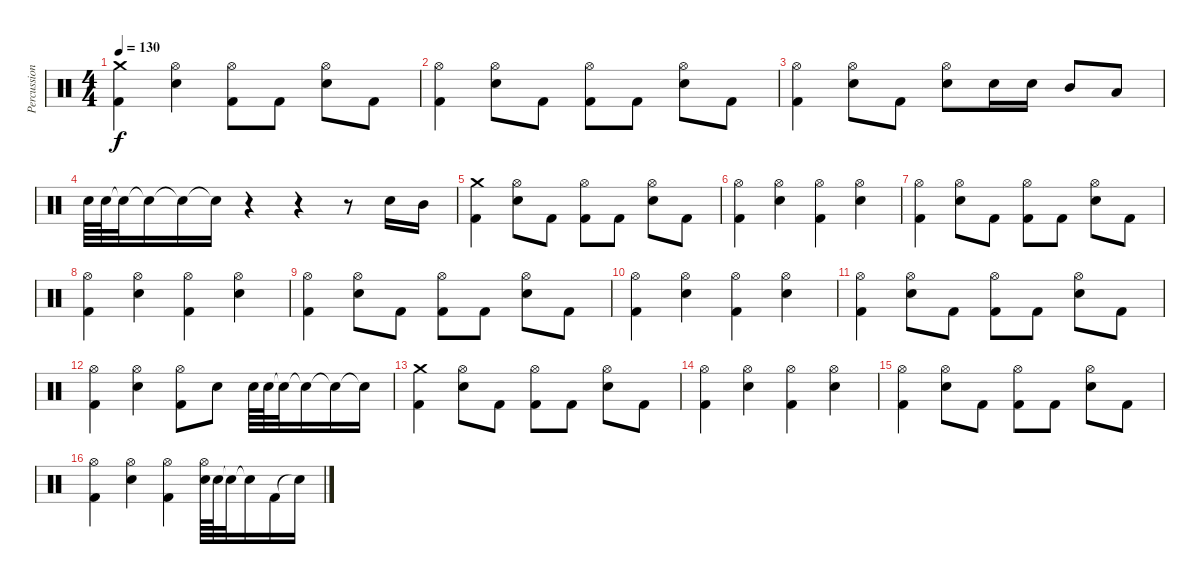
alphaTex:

\track ("Percussions" "Percussion") {instrument percussion}
\staff {score}
\articulation defaults
\ts (4 4)
\tempo 130
\clef neutral
\ks c
("Crash medium (hit)" "Kick (hit) 2").4{dy f} ("Hi-Hat (open)" "Electric Snare (hit)").4 ("Hi-Hat (open)" "Kick (hit) 2").8 "Kick (hit) 2".8 ("Hi-Hat (open)" "Electric Snare (hit)").8 "Kick (hit) 2".8 |
("Hi-Hat (open)" "Kick (hit) 2").4 ("Hi-Hat (open)" "Electric Snare (hit)").8 "Kick (hit) 2".8 ("Hi-Hat (open)" "Kick (hit) 2").8 "Kick (hit) 2".8 ("Hi-Hat (open)" "Electric Snare (hit)").8 "Kick (hit) 2".8 |
("Hi-Hat (open)" "Kick (hit) 2").4 ("Hi-Hat (open)" "Electric Snare (hit)").8 "Kick (hit) 2".8 ("Hi-Hat (open)" "Electric Snare (hit)").8 "Electric Snare (hit)".16 "Electric Snare (hit)".16 "Mid Tom (hit)".8 "Low Tom (hit)".8 |
"Electric Snare (hit)".64 "Electric Snare (hit)".64 "Snare (hit)"{t}.32 "Snare (hit)"{t}.16 "Snare (hit)"{t}.16 "Snare (hit)"{t}.16 r.4 r.4 r.8 "Electric Snare (hit)".16 "Mid Tom (hit)".16 |
("Crash medium (hit)" "Kick (hit) 2").4 ("Hi-Hat (open)" "Electric Snare (hit)").8 "Kick (hit) 2".8 ("Hi-Hat (open)" "Kick (hit) 2").8 "Kick (hit) 2".8 ("Hi-Hat (open)" "Electric Snare (hit)").8 "Kick (hit) 2".8 |
("Hi-Hat (open)" "Kick (hit) 2").4 ("Hi-Hat (open)" "Electric Snare (hit)").4 ("Hi-Hat (open)" "Kick (hit) 2").4 ("Hi-Hat (open)" "Electric Snare (hit)").4 |
("Hi-Hat (open)" "Kick (hit) 2").4 ("Hi-Hat (open)" "Electric Snare (hit)").8 "Kick (hit) 2".8 ("Hi-Hat (open)" "Kick (hit) 2").8 "Kick (hit) 2".8 ("Hi-Hat (open)" "Electric Snare (hit)").8 "Kick (hit) 2".8 |
("Hi-Hat (open)" "Kick (hit) 2").4 ("Hi-Hat (open)" "Electric Snare (hit)").4 ("Hi-Hat (open)" "Kick (hit) 2").4 ("Hi-Hat (open)" "Electric Snare (hit)").4 |
("Hi-Hat (open)" "Kick (hit) 2").4 ("Hi-Hat (open)" "Electric Snare (hit)").8 "Kick (hit) 2".8 ("Hi-Hat (open)" "Kick (hit) 2").8 "Kick (hit) 2".8 ("Hi-Hat (open)" "Electric Snare (hit)").8 "Kick (hit) 2".8 |
("Hi-Hat (open)" "Kick (hit) 2").4 ("Hi-Hat (open)" "Electric Snare (hit)").4 ("Hi-Hat (open)" "Kick (hit) 2").4 ("Hi-Hat (open)" "Electric Snare (hit)").4 |
("Hi-Hat (open)" "Kick (hit) 2").4 ("Hi-Hat (open)" "Electric Snare (hit)").8 "Kick (hit) 2".8 ("Hi-Hat (open)" "Kick (hit) 2").8 "Kick (hit) 2".8 ("Hi-Hat (open)" "Electric Snare (hit)").8 "Kick (hit) 2".8 |
("Hi-Hat (open)" "Kick (hit) 2").4 ("Hi-Hat (open)" "Electric Snare (hit)").4 ("Hi-Hat (open)" "Kick (hit) 2").8 "Electric Snare (hit)".8 "Electric Snare (hit)".64 "Electric Snare (hit)".64 "Snare (hit)"{t}.32 "Snare (hit)"{t}.16 "Snare (hit)"{t}.16 "Snare (hit)"{t}.16 |
("Crash medium (hit)" "Kick (hit) 2").4 ("Hi-Hat (open)" "Electric Snare (hit)").8 "Kick (hit) 2".8 ("Hi-Hat (open)" "Kick (hit) 2").8 "Kick (hit) 2".8 ("Hi-Hat (open)" "Electric Snare (hit)").8 "Kick (hit) 2".8 |
("Hi-Hat (open)" "Kick (hit) 2").4 ("Hi-Hat (open)" "Electric Snare (hit)").4 ("Hi-Hat (open)" "Kick (hit) 2").4 ("Hi-Hat (open)" "Electric Snare (hit)").4 |
("Hi-Hat (open)" "Kick (hit) 2").4 ("Hi-Hat (open)" "Electric Snare (hit)").8 "Kick (hit) 2".8 ("Hi-Hat (open)" "Kick (hit) 2").8 "Kick (hit) 2".8 ("Hi-Hat (open)" "Electric Snare (hit)").8 "Kick (hit) 2".8 |
("Hi-Hat (open)" "Kick (hit) 2").4 ("Hi-Hat (open)" "Electric Snare (hit)").4 ("Hi-Hat (open)" "Kick (hit) 2").4 ("Hi-Hat (open)" "Electric Snare (hit)").64 "Electric Snare (hit)".64 "Snare (hit)"{t}.32 "Snare (hit)"{t}.16 "Kick (hit) 2".16 "Snare (hit)"{t}.16
